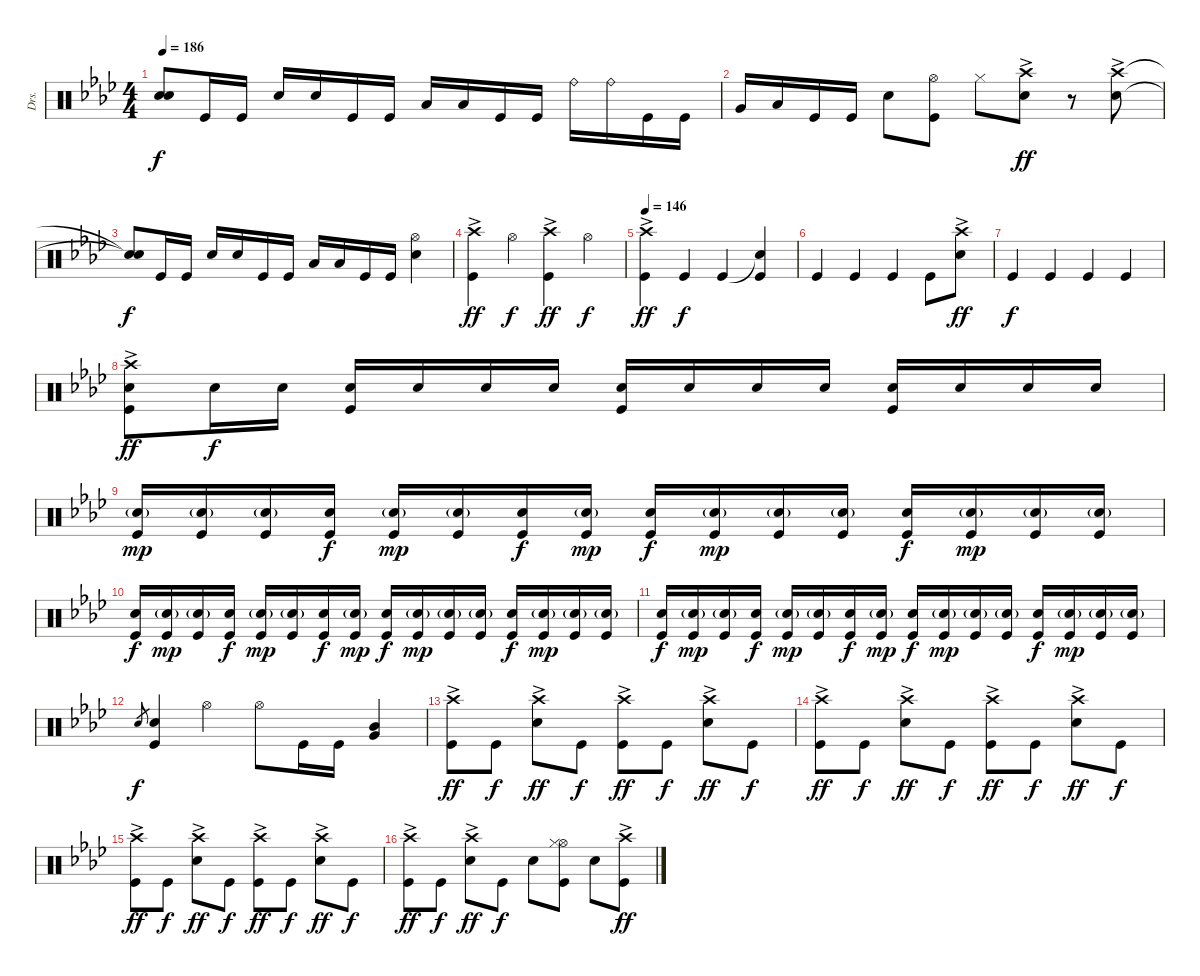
\track ("Drs." "Drs.") {instrument percussion}
\staff {score}
\articulation defaults
\ts (4 4)
\tempo 186
\clef neutral
\ks ab
("Snare (hit)"{t} "Snare (hit)"{t}).8{dy f} "Kick (hit)".16 "Kick (hit)".16 "Snare (hit) 2".16 "Snare (hit) 2".16 "Kick (hit)".16 "Kick (hit)".16 "Low Tom (hit)".16 "Low Tom (hit)".16 "Kick (hit)".16 "Kick (hit)".16 "Ride (bell)".16 "Ride (bell)".16 "Kick (hit)".16 "Kick (hit)".16 |
"Very Low Tom (hit)".16 "Low Tom (hit)".16 "Kick (hit)".16 "Kick (hit)".16 "Snare (hit) 2".8 ("Hi-Hat (open)" "Kick (hit)").8 "Hi-Hat (closed)".8 ("Crash high (hit)"{ac} "Snare (hit) 2").8{dy ff} r.8 ("Crash high (hit)"{ac} "Snare (hit) 2").8 |
("Snare (hit)"{t} "Snare (hit)"{t}).8{dy f} "Kick (hit)".16 "Kick (hit)".16 "Snare (hit) 2".16 "Snare (hit) 2".16 "Kick (hit)".16 "Kick (hit)".16 "Low Tom (hit)".16 "Low Tom (hit)".16 "Kick (hit)".16 "Kick (hit)".16 ("Hi-Hat (open)" "Snare (hit) 2").4 |
("Crash high (hit)"{ac} "Kick (hit)").4{dy ff} "Hi-Hat (open)".4{dy f} ("Crash high (hit)"{ac} "Kick (hit)").4{dy ff} "Hi-Hat (open)".4{dy f} |
\tempo 146
("Crash high (hit)"{ac} "Kick (hit)").4{dy ff} "Kick (hit)".4{dy f} "Kick (hit)".4 ("Snare (hit)"{t} "Kick (hit)").4 |
"Kick (hit)".4 "Kick (hit)".4 "Kick (hit)".4 "Kick (hit)".8 ("Crash high (hit)"{ac} "Snare (hit) 2").8{dy ff} |
"Kick (hit)".4{dy f} "Kick (hit)".4 "Kick (hit)".4 "Kick (hit)".4 |
("Crash high (hit)"{ac} "Snare (hit) 2" "Kick (hit)").8{dy ff} "Snare (hit) 2".16{dy f} "Snare (hit) 2".16 ("Snare (hit) 2" "Kick (hit)").16 "Snare (hit) 2".16 "Snare (hit) 2".16 "Snare (hit) 2".16 ("Snare (hit) 2" "Kick (hit)").16 "Snare (hit) 2".16 "Snare (hit) 2".16 "Snare (hit) 2".16 ("Snare (hit) 2" "Kick (hit)").16 "Snare (hit) 2".16 "Snare (hit) 2".16 "Snare (hit) 2".16 |
("Snare (hit) 2"{g} "Kick (hit)").16{dy mp} ("Snare (hit) 2"{g} "Kick (hit)").16 ("Snare (hit) 2"{g} "Kick (hit)").16 ("Snare (hit) 2" "Kick (hit)").16{dy f} ("Snare (hit) 2"{g} "Kick (hit)").16{dy mp} ("Snare (hit) 2"{g} "Kick (hit)").16 ("Snare (hit) 2" "Kick (hit)").16{dy f} ("Snare (hit) 2"{g} "Kick (hit)").16{dy mp} ("Snare (hit) 2" "Kick (hit)").16{dy f} ("Snare (hit) 2"{g} "Kick (hit)").16{dy mp} ("Snare (hit) 2"{g} "Kick (hit)").16 ("Snare (hit) 2"{g} "Kick (hit)").16 ("Snare (hit) 2" "Kick (hit)").16{dy f} ("Snare (hit) 2"{g} "Kick (hit)").16{dy mp} ("Snare (hit) 2"{g} "Kick (hit)").16 ("Snare (hit) 2"{g} "Kick (hit)").16 |
("Snare (hit) 2" "Kick (hit)").16{dy f} ("Snare (hit) 2"{g} "Kick (hit)").16{dy mp} ("Snare (hit) 2"{g} "Kick (hit)").16 ("Snare (hit) 2" "Kick (hit)").16{dy f} ("Snare (hit) 2"{g} "Kick (hit)").16{dy mp} ("Snare (hit) 2"{g} "Kick (hit)").16 ("Snare (hit) 2" "Kick (hit)").16{dy f} ("Snare (hit) 2"{g} "Kick (hit)").16{dy mp} ("Snare (hit) 2" "Kick (hit)").16{dy f} ("Snare (hit) 2"{g} "Kick (hit)").16{dy mp} ("Snare (hit) 2"{g} "Kick (hit)").16 ("Snare (hit) 2"{g} "Kick (hit)").16 ("Snare (hit) 2" "Kick (hit)").16{dy f} ("Snare (hit) 2"{g} "Kick (hit)").16{dy mp} ("Snare (hit) 2"{g} "Kick (hit)").16 ("Snare (hit) 2"{g} "Kick (hit)").16 |
("Snare (hit) 2" "Kick (hit)").16{dy f} ("Snare (hit) 2"{g} "Kick (hit)").16{dy mp} ("Snare (hit) 2"{g} "Kick (hit)").16 ("Snare (hit) 2" "Kick (hit)").16{dy f} ("Snare (hit) 2"{g} "Kick (hit)").16{dy mp} ("Snare (hit) 2"{g} "Kick (hit)").16 ("Snare (hit) 2" "Kick (hit)").16{dy f} ("Snare (hit) 2"{g} "Kick (hit)").16{dy mp} ("Snare (hit) 2" "Kick (hit)").16{dy f} ("Snare (hit) 2"{g} "Kick (hit)").16{dy mp} ("Snare (hit) 2"{g} "Kick (hit)").16 ("Snare (hit) 2"{g} "Kick (hit)").16 ("Snare (hit) 2" "Kick (hit)").16{dy f} ("Snare (hit) 2"{g} "Kick (hit)").16{dy mp} ("Snare (hit) 2"{g} "Kick (hit)").16 ("Snare (hit) 2"{g} "Kick (hit)").16 |
"Snare (hit) 2".8{gr dy f} ("Snare (hit) 2" "Kick (hit)").4 "Hi-Hat (open)".4 "Hi-Hat (open)".8 "Kick (hit)".16 "Kick (hit)".16 ("Mid Tom (hit)" "Very Low Tom (hit)").4 |
("Crash high (hit)"{ac} "Kick (hit)").8{dy ff} "Kick (hit)".8{dy f} ("Crash high (hit)"{ac} "Snare (hit) 2").8{dy ff} "Kick (hit)".8{dy f} ("Crash high (hit)"{ac} "Kick (hit)").8{dy ff} "Kick (hit)".8{dy f} ("Crash high (hit)"{ac} "Snare (hit) 2").8{dy ff} "Kick (hit)".8{dy f} |
("Crash high (hit)"{ac} "Kick (hit)").8{dy ff} "Kick (hit)".8{dy f} ("Crash high (hit)"{ac} "Snare (hit) 2").8{dy ff} "Kick (hit)".8{dy f} ("Crash high (hit)"{ac} "Kick (hit)").8{dy ff} "Kick (hit)".8{dy f} ("Crash high (hit)"{ac} "Snare (hit) 2").8{dy ff} "Kick (hit)".8{dy f} |
("Crash high (hit)"{ac} "Kick (hit)").8{dy ff} "Kick (hit)".8{dy f} ("Crash high (hit)"{ac} "Snare (hit) 2").8{dy ff} "Kick (hit)".8{dy f} ("Crash high (hit)"{ac} "Kick (hit)").8{dy ff} "Kick (hit)".8{dy f} ("Crash high (hit)"{ac} "Snare (hit) 2").8{dy ff} "Kick (hit)".8{dy f} |
("Crash high (hit)"{ac} "Kick (hit)").8{dy ff} "Kick (hit)".8{dy f} ("Crash high (hit)"{ac} "Snare (hit) 2").8{dy ff} "Kick (hit)".8{dy f} "Snare (hit) 2".8 ("Hi-Hat (open)" "Hi-Hat (closed)" "Kick (hit)").8 "Snare (hit) 2".8 ("Crash high (hit)"{ac} "Kick (hit)").8{dy ff}
